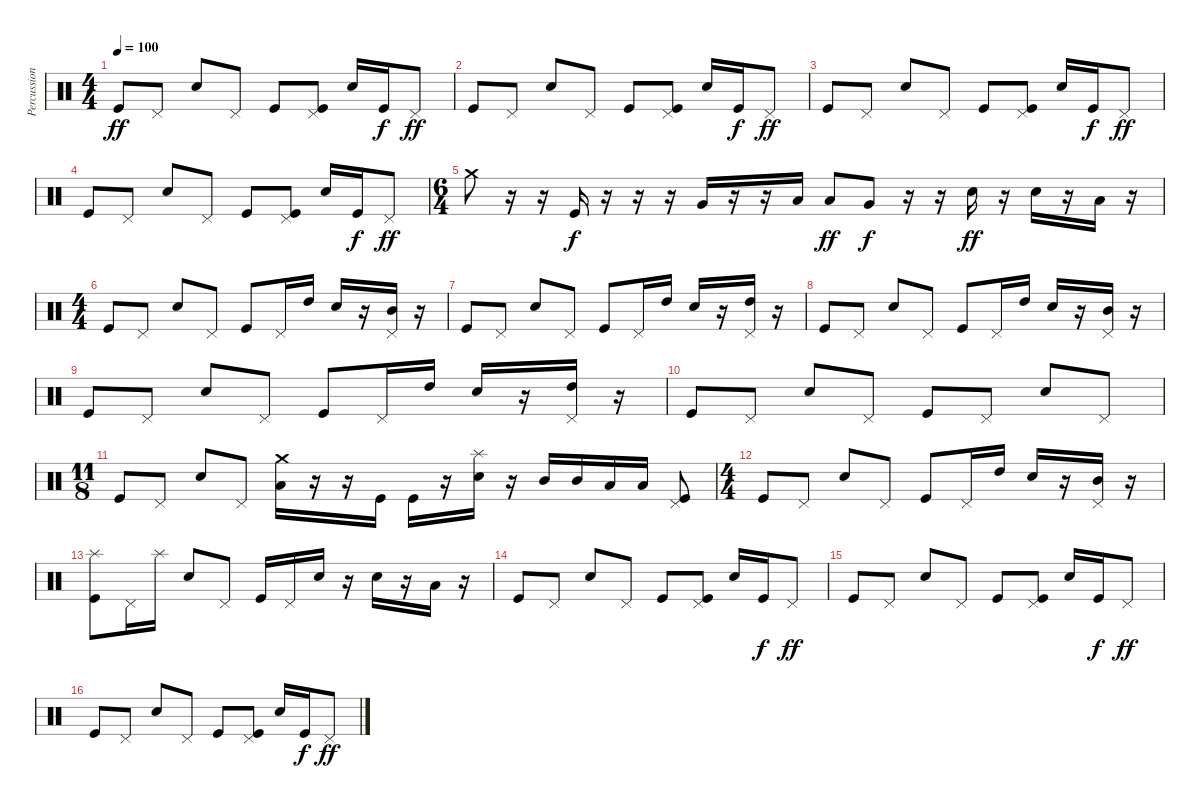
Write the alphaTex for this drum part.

\track ("Percussion" "Percussion") {instrument percussion}
\staff {score}
\articulation defaults
\ts (4 4)
\tempo 100
\clef neutral
\ks c "Kick (hit)".8{dy ff} "Pedal Hi-Hat (hit)".8 "Electric Snare (hit)".8 "Pedal Hi-Hat (hit)".8 "Kick (hit)".8
("Pedal Hi-Hat (hit)" "Kick (hit)").8 "Electric Snare (hit)".16 "Kick (hit)".16{dy f} "Pedal Hi-Hat (hit)".8{dy ff} |
"Kick (hit)".8 "Pedal Hi-Hat (hit)".8 "Electric Snare (hit)".8 "Pedal Hi-Hat (hit)".8 "Kick (hit)".8 ("Pedal Hi-Hat (hit)" "Kick (hit)").8 "Electric Snare (hit)".16 "Kick (hit)".16{dy f} "Pedal Hi-Hat (hit)".8{dy ff} |
"Kick (hit)".8 "Pedal Hi-Hat (hit)".8 "Electric Snare (hit)".8 "Pedal Hi-Hat (hit)".8 "Kick (hit)".8 ("Pedal Hi-Hat (hit)" "Kick (hit)").8 "Electric Snare (hit)".16 "Kick (hit)".16{dy f} "Pedal Hi-Hat (hit)".8{dy ff} |
"Kick (hit)".8 "Pedal Hi-Hat (hit)".8 "Electric Snare (hit)".8 "Pedal Hi-Hat (hit)".8 "Kick (hit)".8 ("Pedal Hi-Hat (hit)" "Kick (hit)").8 "Electric Snare (hit)".16 "Kick (hit)".16{dy f} "Pedal Hi-Hat (hit)".8{dy ff} |
\ts (6 4)
"Crash medium (hit)".8 r.16 r.16 "Kick (hit)".16{dy f} r.16 r.16 r.16 "Very Low Tom (hit)".16 r.16 r.16 "Low Tom (hit)".16 "Low Tom (hit)".8{dy ff} "Very Low Tom (hit)".8{dy f} r.16 r.16 "Electric Snare (hit)".16{dy ff} r.16 "Electric Snare (hit)".16 r.16 "Low Tom (hit)".16 r.16 |
\ts (4 4)
"Kick (hit)".8 "Pedal Hi-Hat (hit)".8 "Electric Snare (hit)".8 "Pedal Hi-Hat (hit)".8 "Kick (hit)".8 "Pedal Hi-Hat (hit)".16 "High Tom (hit)".16 "Electric Snare (hit)".16 r.16 ("Pedal Hi-Hat (hit)" "Mid Tom (hit)").16 r.16 |
"Kick (hit)".8 "Pedal Hi-Hat (hit)".8 "Electric Snare (hit)".8 "Pedal Hi-Hat (hit)".8 "Kick (hit)".8 "Pedal Hi-Hat (hit)".16 "High Tom (hit)".16 "Electric Snare (hit)".16 r.16 ("Pedal Hi-Hat (hit)" "High Tom (hit)").16 r.16 |
"Kick (hit)".8 "Pedal Hi-Hat (hit)".8 "Electric Snare (hit)".8 "Pedal Hi-Hat (hit)".8 "Kick (hit)".8 "Pedal Hi-Hat (hit)".16 "High Tom (hit)".16 "Electric Snare (hit)".16 r.16 ("Pedal Hi-Hat (hit)" "Mid Tom (hit)").16 r.16 |
"Kick (hit)".8 "Pedal Hi-Hat (hit)".8 "Electric Snare (hit)".8 "Pedal Hi-Hat (hit)".8 "Kick (hit)".8 "Pedal Hi-Hat (hit)".16 "High Tom (hit)".16 "Electric Snare (hit)".16 r.16 ("Pedal Hi-Hat (hit)" "High Tom (hit)").16 r.16 |
"Kick (hit)".8 "Pedal Hi-Hat (hit)".8 "Electric Snare (hit)".8 "Pedal Hi-Hat (hit)".8 "Kick (hit)".8 "Pedal Hi-Hat (hit)".8 "Electric Snare (hit)".8 "Pedal Hi-Hat (hit)".8 |
\ts (11 8)
"Kick (hit)".8 "Pedal Hi-Hat (hit)".8 "Electric Snare (hit)".8 "Pedal Hi-Hat (hit)".8 ("Crash medium (hit)" "Low Floor Tom (hit)").16 r.16 r.16 "Kick (hit)".16 "Kick (hit)".16 r.16 ("Splash (hit)" "Electric Snare (hit)").16 r.16 "Mid Tom (hit)".16 "Mid Tom (hit)".16 "Low Tom (hit)".16 "Low Tom (hit)".16 ("Pedal Hi-Hat (hit)" "Kick (hit)").8 |
\ts (4 4)
"Kick (hit)".8 "Pedal Hi-Hat (hit)".8 "Electric Snare (hit)".8 "Pedal Hi-Hat (hit)".8 "Kick (hit)".8 "Pedal Hi-Hat (hit)".16 "High Tom (hit)".16 "Electric Snare (hit)".16 r.16 ("Pedal Hi-Hat (hit)" "Mid Tom (hit)").16 r.16 |
("Splash (hit)" "Kick (hit)").8 "Pedal Hi-Hat (hit)".16 "Splash (hit)".16 "Electric Snare (hit)".8 "Pedal Hi-Hat (hit)".8 "Kick (hit)".16 "Pedal Hi-Hat (hit)".16 "Electric Snare (hit)".16 r.16 "Electric Snare (hit)".16 r.16 "Low Tom (hit)".16 r.16 |
"Kick (hit)".8 "Pedal Hi-Hat (hit)".8 "Electric Snare (hit)".8 "Pedal Hi-Hat (hit)".8 "Kick (hit)".8 ("Pedal Hi-Hat (hit)" "Kick (hit)").8 "Electric Snare (hit)".16 "Kick (hit)".16{dy f} "Pedal Hi-Hat (hit)".8{dy ff} |
"Kick (hit)".8 "Pedal Hi-Hat (hit)".8 "Electric Snare (hit)".8 "Pedal Hi-Hat (hit)".8 "Kick (hit)".8 ("Pedal Hi-Hat (hit)" "Kick (hit)").8 "Electric Snare (hit)".16 "Kick (hit)".16{dy f} "Pedal Hi-Hat (hit)".8{dy ff} |
"Kick (hit)".8 "Pedal Hi-Hat (hit)".8 "Electric Snare (hit)".8 "Pedal Hi-Hat (hit)".8 "Kick (hit)".8 ("Pedal Hi-Hat (hit)" "Kick (hit)").8 "Electric Snare (hit)".16 "Kick (hit)".16{dy f} "Pedal Hi-Hat (hit)".8{dy ff}
